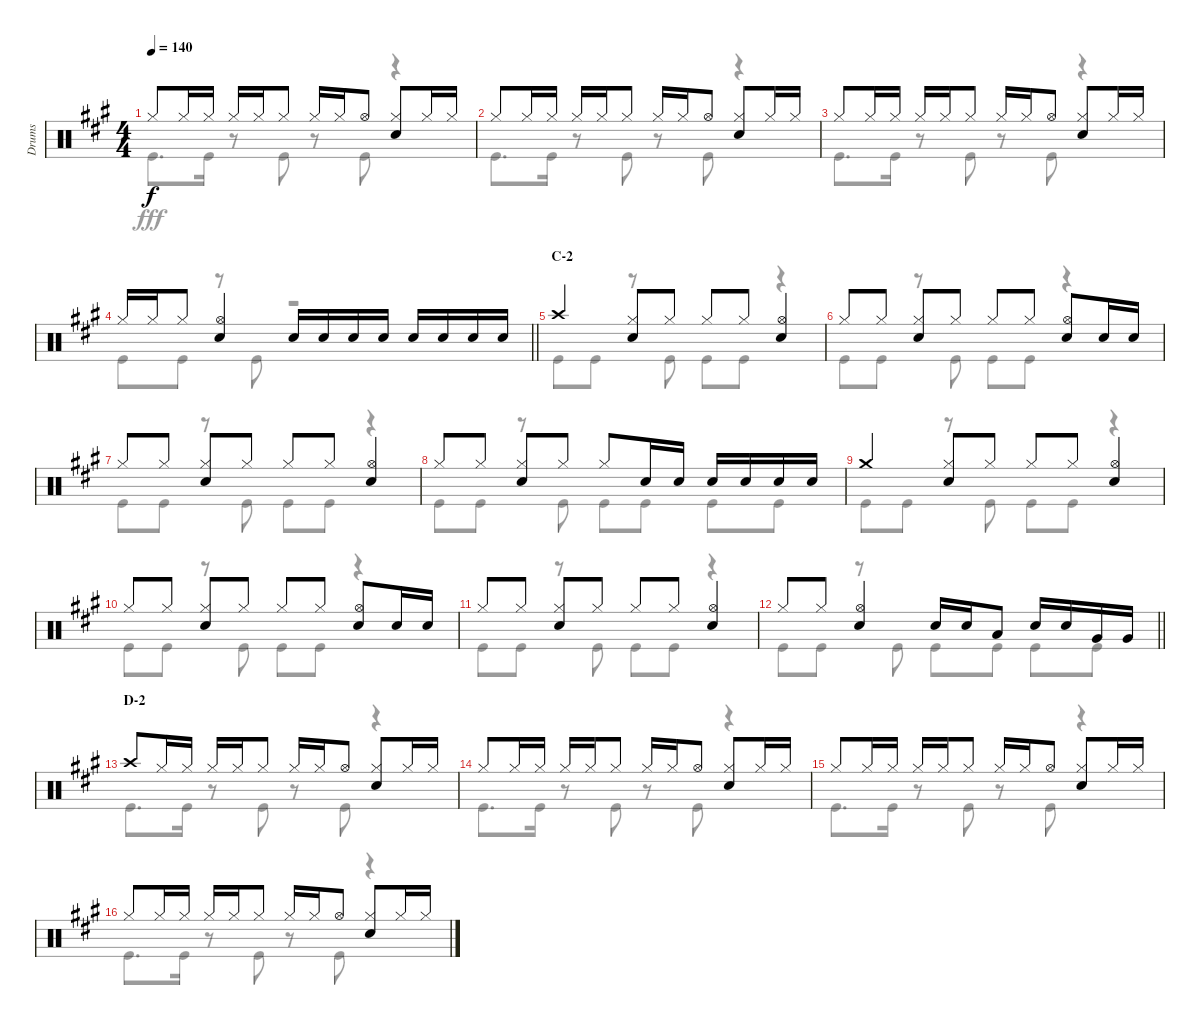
\track ("Drums" "Drums") {instrument percussion}
\staff {score}
\articulation defaults
\voice
\ts (4 4)
\tempo 140
\clef neutral
\ks a "Hi-Hat (closed)".8{dy f} "Hi-Hat (closed)".16 "Hi-Hat (closed)".16 "Hi-Hat (closed)".16 "Hi-Hat (closed)".16 "Hi-Hat (closed)".8 "Hi-Hat (closed)".16 "Hi-Hat (closed)".16 "Hi-Hat (open)".8
("Hi-Hat (closed)" "Snare (hit) 2").8 "Hi-Hat (closed)".16 "Hi-Hat (closed)".16 |
"Hi-Hat (closed)".8 "Hi-Hat (closed)".16 "Hi-Hat (closed)".16 "Hi-Hat (closed)".16 "Hi-Hat (closed)".16 "Hi-Hat (closed)".8 "Hi-Hat (closed)".16 "Hi-Hat (closed)".16 "Hi-Hat (open)".8 ("Hi-Hat (closed)" "Snare (hit) 2").8 "Hi-Hat (closed)".16 "Hi-Hat (closed)".16 |
"Hi-Hat (closed)".8 "Hi-Hat (closed)".16 "Hi-Hat (closed)".16 "Hi-Hat (closed)".16 "Hi-Hat (closed)".16 "Hi-Hat (closed)".8 "Hi-Hat (closed)".16 "Hi-Hat (closed)".16 "Hi-Hat (open)".8 ("Hi-Hat (closed)" "Snare (hit) 2").8 "Hi-Hat (closed)".16 "Hi-Hat (closed)".16 |
\barLineRight lightlight "Hi-Hat (closed)".16 "Hi-Hat (closed)".16 "Hi-Hat (closed)".8
("Hi-Hat (open)" "Snare (hit) 2").4 "Snare (hit) 2".16 "Snare (hit) 2".16 "Snare (hit) 2".16 "Snare (hit) 2".16 "Snare (hit) 2".16 "Snare (hit) 2".16 "Snare (hit) 2".16 "Snare (hit) 2".16 |
\section ("" "C-2")
"Crash high (hit)".4 ("Hi-Hat (closed)" "Snare (hit) 2").8 "Hi-Hat (closed)".8 "Hi-Hat (closed)".8 "Hi-Hat (closed)".8 ("Hi-Hat (open)" "Snare (hit) 2").4 |
"Hi-Hat (closed)".8 "Hi-Hat (closed)".8 ("Hi-Hat (closed)" "Snare (hit) 2").8 "Hi-Hat (closed)".8 "Hi-Hat (closed)".8 "Hi-Hat (closed)".8 ("Hi-Hat (open)" "Snare (hit) 2").8 "Snare (hit) 2".16 "Snare (hit) 2".16 |
"Hi-Hat (closed)".8 "Hi-Hat (closed)".8 ("Hi-Hat (closed)" "Snare (hit) 2").8 "Hi-Hat (closed)".8 "Hi-Hat (closed)".8 "Hi-Hat (closed)".8 ("Hi-Hat (open)" "Snare (hit) 2").4 |
"Hi-Hat (closed)".8 "Hi-Hat (closed)".8 ("Hi-Hat (closed)" "Snare (hit) 2").8 "Hi-Hat (closed)".8 "Hi-Hat (closed)".8 "Snare (hit) 2".16 "Snare (hit) 2".16 "Snare (hit) 2".16 "Snare (hit) 2".16 "Snare (hit) 2".16 "Snare (hit) 2".16 |
"Crash medium (hit)".4 ("Hi-Hat (closed)" "Snare (hit) 2").8 "Hi-Hat (closed)".8 "Hi-Hat (closed)".8 "Hi-Hat (closed)".8 ("Hi-Hat (open)" "Snare (hit) 2").4 |
"Hi-Hat (closed)".8 "Hi-Hat (closed)".8 ("Hi-Hat (closed)" "Snare (hit) 2").8 "Hi-Hat (closed)".8 "Hi-Hat (closed)".8 "Hi-Hat (closed)".8 ("Hi-Hat (open)" "Snare (hit) 2").8 "Snare (hit) 2".16 "Snare (hit) 2".16 |
"Hi-Hat (closed)".8 "Hi-Hat (closed)".8 ("Hi-Hat (closed)" "Snare (hit) 2").8 "Hi-Hat (closed)".8 "Hi-Hat (closed)".8 "Hi-Hat (closed)".8 ("Hi-Hat (open)" "Snare (hit) 2").4 |
\barLineRight lightlight "Hi-Hat (closed)".8 "Hi-Hat (closed)".8
("Hi-Hat (open)" "Snare (hit) 2").4 "Snare (hit) 2".16 "Snare (hit) 2".16 "Low Tom (hit)".8 "Snare (hit) 2".16 "Snare (hit) 2".16 "Very Low Tom (hit)".16 "Very Low Tom (hit)".16 |
\section ("" "D-2")
"Crash high (hit)".8 "Hi-Hat (closed)".16 "Hi-Hat (closed)".16 "Hi-Hat (closed)".16 "Hi-Hat (closed)".16 "Hi-Hat (closed)".8 "Hi-Hat (closed)".16 "Hi-Hat (closed)".16 "Hi-Hat (open)".8 ("Hi-Hat (closed)" "Snare (hit) 2").8 "Hi-Hat (closed)".16 "Hi-Hat (closed)".16 |
"Hi-Hat (closed)".8 "Hi-Hat (closed)".16 "Hi-Hat (closed)".16 "Hi-Hat (closed)".16 "Hi-Hat (closed)".16 "Hi-Hat (closed)".8 "Hi-Hat (closed)".16 "Hi-Hat (closed)".16 "Hi-Hat (open)".8 ("Hi-Hat (closed)" "Snare (hit) 2").8 "Hi-Hat (closed)".16 "Hi-Hat (closed)".16 |
"Hi-Hat (closed)".8 "Hi-Hat (closed)".16 "Hi-Hat (closed)".16 "Hi-Hat (closed)".16 "Hi-Hat (closed)".16 "Hi-Hat (closed)".8 "Hi-Hat (closed)".16 "Hi-Hat (closed)".16 "Hi-Hat (open)".8 ("Hi-Hat (closed)" "Snare (hit) 2").8 "Hi-Hat (closed)".16 "Hi-Hat (closed)".16 |
"Hi-Hat (closed)".8 "Hi-Hat (closed)".16 "Hi-Hat (closed)".16 "Hi-Hat (closed)".16 "Hi-Hat (closed)".16 "Hi-Hat (closed)".8 "Hi-Hat (closed)".16 "Hi-Hat (closed)".16 "Hi-Hat (open)".8 ("Hi-Hat (closed)" "Snare (hit) 2").8 "Hi-Hat (closed)".16 "Hi-Hat (closed)".16
\voice
\clef neutral
\ottava regular
\simile none
\ks a "Kick (hit)".8{d dy fff} "Kick (hit)".16
r.8 "Kick (hit)".8 r.8 "Kick (hit)".8 r.4 |
"Kick (hit)".8{d} "Kick (hit)".16 r.8 "Kick (hit)".8 r.8 "Kick (hit)".8 r.4 |
"Kick (hit)".8{d} "Kick (hit)".16 r.8 "Kick (hit)".8 r.8 "Kick (hit)".8 r.4 |
\barLineRight lightlight "Kick (hit)".8 "Kick (hit)".8
r.8 "Kick (hit)".8 r.2 |
"Kick (hit)".8 "Kick (hit)".8 r.8 "Kick (hit)".8 "Kick (hit)".8 "Kick (hit)".8 r.4 |
"Kick (hit)".8 "Kick (hit)".8 r.8 "Kick (hit)".8 "Kick (hit)".8 "Kick (hit)".8 r.4 |
"Kick (hit)".8 "Kick (hit)".8 r.8 "Kick (hit)".8 "Kick (hit)".8 "Kick (hit)".8 r.4 |
"Kick (hit)".8 "Kick (hit)".8 r.8 "Kick (hit)".8 "Kick (hit)".8 "Kick (hit)".8 "Kick (hit)".8 "Kick (hit)".8 |
"Kick (hit)".8 "Kick (hit)".8 r.8 "Kick (hit)".8 "Kick (hit)".8 "Kick (hit)".8 r.4 |
"Kick (hit)".8 "Kick (hit)".8 r.8 "Kick (hit)".8 "Kick (hit)".8 "Kick (hit)".8 r.4 |
"Kick (hit)".8 "Kick (hit)".8 r.8 "Kick (hit)".8 "Kick (hit)".8 "Kick (hit)".8 r.4 |
\barLineRight lightlight "Kick (hit)".8 "Kick (hit)".8
r.8 "Kick (hit)".8 "Kick (hit)".8 "Kick (hit)".8 "Kick (hit)".8 "Kick (hit)".8 |
"Kick (hit)".8{d} "Kick (hit)".16 r.8 "Kick (hit)".8 r.8 "Kick (hit)".8 r.4 |
"Kick (hit)".8{d} "Kick (hit)".16 r.8 "Kick (hit)".8 r.8 "Kick (hit)".8 r.4 |
"Kick (hit)".8{d} "Kick (hit)".16 r.8 "Kick (hit)".8 r.8 "Kick (hit)".8 r.4 |
"Kick (hit)".8{d} "Kick (hit)".16 r.8 "Kick (hit)".8 r.8 "Kick (hit)".8 r.4
